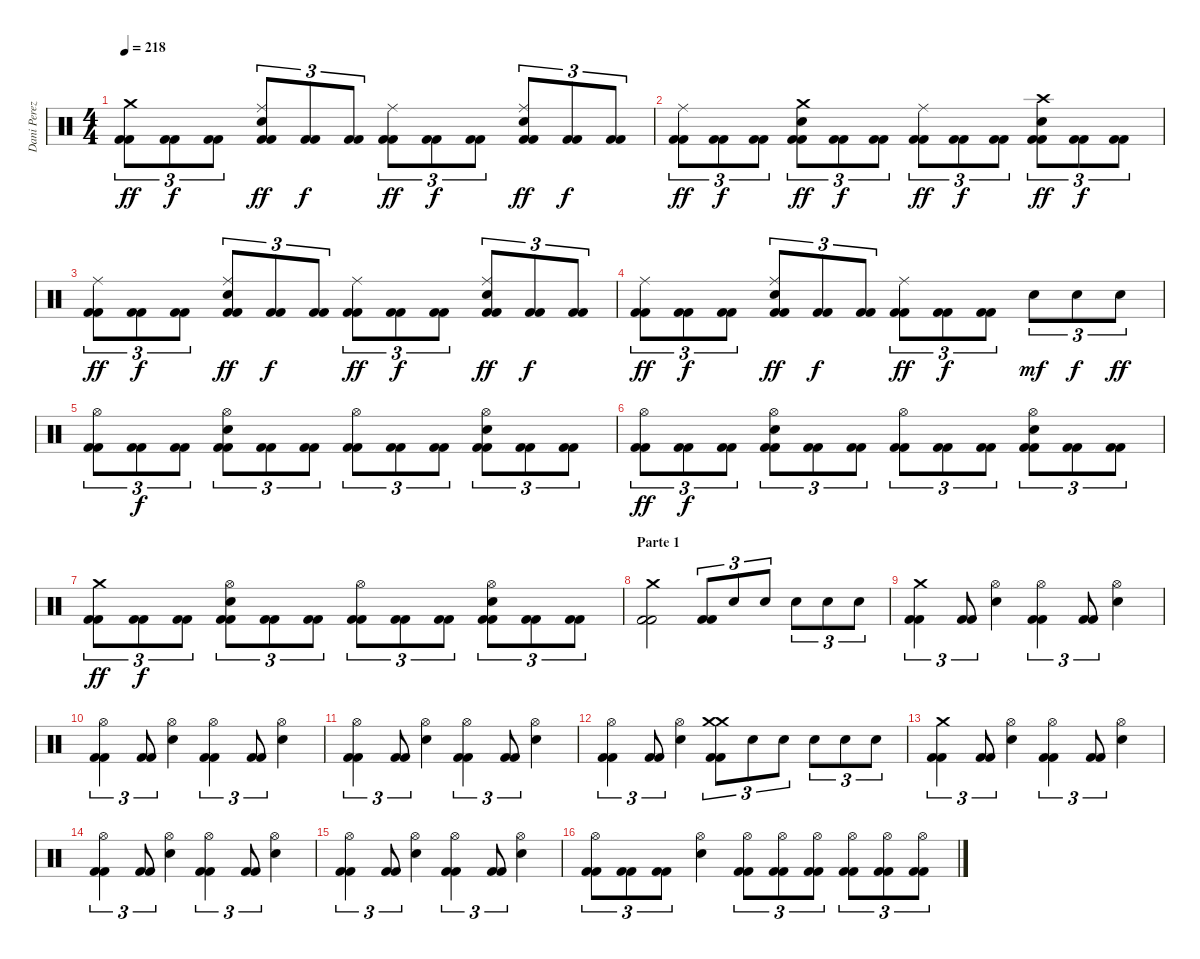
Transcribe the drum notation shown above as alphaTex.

\track ("Dani Perez" "Dani Perez") {instrument percussion}
\staff {score}
\articulation defaults
\ts (4 4)
\tempo 218
\clef neutral
\ks c
("Crash medium (hit)" "Kick (hit) 2" "Kick (hit) 2").8{tu (3 2) dy ff} ("Kick (hit) 2" "Kick (hit) 2").8{tu (3 2) dy f} ("Kick (hit) 2" "Kick (hit) 2").8{tu (3 2)} ("Ride (middle)" "Snare (hit) 2" "Kick (hit) 2" "Kick (hit) 2").8{tu (3 2) dy ff} ("Kick (hit) 2" "Kick (hit) 2").8{tu (3 2) dy f} ("Kick (hit) 2" "Kick (hit) 2").8{tu (3 2)} ("Ride (middle)" "Kick (hit) 2" "Kick (hit) 2").8{tu (3 2) dy ff} ("Kick (hit) 2" "Kick (hit) 2").8{tu (3 2) dy f} ("Kick (hit) 2" "Kick (hit) 2").8{tu (3 2)} ("Ride (middle)" "Snare (hit) 2" "Kick (hit) 2" "Kick (hit) 2").8{tu (3 2) dy ff} ("Kick (hit) 2" "Kick (hit) 2").8{tu (3 2) dy f} ("Kick (hit) 2" "Kick (hit) 2").8{tu (3 2)} |
("Ride (middle)" "Kick (hit) 2" "Kick (hit) 2").8{tu (3 2) dy ff} ("Kick (hit) 2" "Kick (hit) 2").8{tu (3 2) dy f} ("Kick (hit) 2" "Kick (hit) 2").8{tu (3 2)} ("Crash medium (hit)" "Snare (hit) 2" "Kick (hit) 2" "Kick (hit) 2").8{tu (3 2) dy ff} ("Kick (hit) 2" "Kick (hit) 2").8{tu (3 2) dy f} ("Kick (hit) 2" "Kick (hit) 2").8{tu (3 2)} ("Ride (middle)" "Kick (hit) 2" "Kick (hit) 2").8{tu (3 2) dy ff} ("Kick (hit) 2" "Kick (hit) 2").8{tu (3 2) dy f} ("Kick (hit) 2" "Kick (hit) 2").8{tu (3 2)} ("Crash high (hit)" "Snare (hit) 2" "Kick (hit) 2" "Kick (hit) 2").8{tu (3 2) dy ff} ("Kick (hit) 2" "Kick (hit) 2").8{tu (3 2) dy f} ("Kick (hit) 2" "Kick (hit) 2").8{tu (3 2)} |
("Ride (middle)" "Kick (hit) 2" "Kick (hit) 2").8{tu (3 2) dy ff} ("Kick (hit) 2" "Kick (hit) 2").8{tu (3 2) dy f} ("Kick (hit) 2" "Kick (hit) 2").8{tu (3 2)} ("Ride (middle)" "Snare (hit) 2" "Kick (hit) 2" "Kick (hit) 2").8{tu (3 2) dy ff} ("Kick (hit) 2" "Kick (hit) 2").8{tu (3 2) dy f} ("Kick (hit) 2" "Kick (hit) 2").8{tu (3 2)} ("Ride (middle)" "Kick (hit) 2" "Kick (hit) 2").8{tu (3 2) dy ff} ("Kick (hit) 2" "Kick (hit) 2").8{tu (3 2) dy f} ("Kick (hit) 2" "Kick (hit) 2").8{tu (3 2)} ("Ride (middle)" "Snare (hit) 2" "Kick (hit) 2" "Kick (hit) 2").8{tu (3 2) dy ff} ("Kick (hit) 2" "Kick (hit) 2").8{tu (3 2) dy f} ("Kick (hit) 2" "Kick (hit) 2").8{tu (3 2)} |
("Ride (middle)" "Kick (hit) 2" "Kick (hit) 2").8{tu (3 2) dy ff} ("Kick (hit) 2" "Kick (hit) 2").8{tu (3 2) dy f} ("Kick (hit) 2" "Kick (hit) 2").8{tu (3 2)} ("Ride (middle)" "Snare (hit) 2" "Kick (hit) 2" "Kick (hit) 2").8{tu (3 2) dy ff} ("Kick (hit) 2" "Kick (hit) 2").8{tu (3 2) dy f} ("Kick (hit) 2" "Kick (hit) 2").8{tu (3 2)} ("Ride (middle)" "Kick (hit) 2" "Kick (hit) 2").8{tu (3 2) dy ff} ("Kick (hit) 2" "Kick (hit) 2").8{tu (3 2) dy f} ("Kick (hit) 2" "Kick (hit) 2").8{tu (3 2)} "Snare (hit) 2".8{tu (3 2) dy mf} "Snare (hit) 2".8{tu (3 2) dy f} "Snare (hit) 2".8{tu (3 2) dy ff} |
("Hi-Hat (open)" "Kick (hit) 2" "Kick (hit) 2").8{tu (3 2)} ("Kick (hit) 2" "Kick (hit) 2").8{tu (3 2) dy f} ("Kick (hit) 2" "Kick (hit) 2").8{tu (3 2)} ("Hi-Hat (open)" "Snare (hit) 2" "Kick (hit) 2" "Kick (hit) 2").8{tu (3 2)} ("Kick (hit) 2" "Kick (hit) 2").8{tu (3 2)} ("Kick (hit) 2" "Kick (hit) 2").8{tu (3 2)} ("Hi-Hat (open)" "Kick (hit) 2" "Kick (hit) 2").8{tu (3 2)} ("Kick (hit) 2" "Kick (hit) 2").8{tu (3 2)} ("Kick (hit) 2" "Kick (hit) 2").8{tu (3 2)} ("Hi-Hat (open)" "Snare (hit) 2" "Kick (hit) 2" "Kick (hit) 2").8{tu (3 2)} ("Kick (hit) 2" "Kick (hit) 2").8{tu (3 2)} ("Kick (hit) 2" "Kick (hit) 2").8{tu (3 2)} |
("Hi-Hat (open)" "Kick (hit) 2" "Kick (hit) 2").8{tu (3 2) dy ff} ("Kick (hit) 2" "Kick (hit) 2").8{tu (3 2) dy f} ("Kick (hit) 2" "Kick (hit) 2").8{tu (3 2)} ("Hi-Hat (open)" "Snare (hit) 2" "Kick (hit) 2" "Kick (hit) 2").8{tu (3 2)} ("Kick (hit) 2" "Kick (hit) 2").8{tu (3 2)} ("Kick (hit) 2" "Kick (hit) 2").8{tu (3 2)} ("Hi-Hat (open)" "Kick (hit) 2" "Kick (hit) 2").8{tu (3 2)} ("Kick (hit) 2" "Kick (hit) 2").8{tu (3 2)} ("Kick (hit) 2" "Kick (hit) 2").8{tu (3 2)} ("Hi-Hat (open)" "Snare (hit) 2" "Kick (hit) 2" "Kick (hit) 2").8{tu (3 2)} ("Kick (hit) 2" "Kick (hit) 2").8{tu (3 2)} ("Kick (hit) 2" "Kick (hit) 2").8{tu (3 2)} |
("Crash medium (hit)" "Kick (hit) 2" "Kick (hit) 2").8{tu (3 2) dy ff} ("Kick (hit) 2" "Kick (hit) 2").8{tu (3 2) dy f} ("Kick (hit) 2" "Kick (hit) 2").8{tu (3 2)} ("Hi-Hat (open)" "Snare (hit) 2" "Kick (hit) 2" "Kick (hit) 2").8{tu (3 2)} ("Kick (hit) 2" "Kick (hit) 2").8{tu (3 2)} ("Kick (hit) 2" "Kick (hit) 2").8{tu (3 2)} ("Hi-Hat (open)" "Kick (hit) 2" "Kick (hit) 2").8{tu (3 2)} ("Kick (hit) 2" "Kick (hit) 2").8{tu (3 2)} ("Kick (hit) 2" "Kick (hit) 2").8{tu (3 2)} ("Hi-Hat (open)" "Snare (hit) 2" "Kick (hit) 2" "Kick (hit) 2").8{tu (3 2)} ("Kick (hit) 2" "Kick (hit) 2").8{tu (3 2)} ("Kick (hit) 2" "Kick (hit) 2").8{tu (3 2)} |
\section ("" "Parte 1")
("Crash medium (hit)" "Kick (hit) 2" "Kick (hit) 2").2 ("Kick (hit) 2" "Kick (hit) 2").8{tu (3 2)} "Snare (hit) 2".8{tu (3 2)} "Snare (hit) 2".8{tu (3 2)} "Snare (hit) 2".8{tu (3 2)} "Snare (hit) 2".8{tu (3 2)} "Snare (hit) 2".8{tu (3 2)} |
("Crash medium (hit)" "Kick (hit) 2" "Kick (hit) 2").4{tu (3 2)} ("Kick (hit) 2" "Kick (hit) 2").8{tu (3 2)} ("Hi-Hat (open)" "Snare (hit) 2").4 ("Hi-Hat (open)" "Kick (hit) 2" "Kick (hit) 2").4{tu (3 2)} ("Kick (hit) 2" "Kick (hit) 2").8{tu (3 2)} ("Hi-Hat (open)" "Snare (hit) 2").4 |
("Hi-Hat (open)" "Kick (hit) 2" "Kick (hit) 2").4{tu (3 2)} ("Kick (hit) 2" "Kick (hit) 2").8{tu (3 2)} ("Hi-Hat (open)" "Snare (hit) 2").4 ("Hi-Hat (open)" "Kick (hit) 2" "Kick (hit) 2").4{tu (3 2)} ("Kick (hit) 2" "Kick (hit) 2").8{tu (3 2)} ("Hi-Hat (open)" "Snare (hit) 2").4 |
("Hi-Hat (open)" "Kick (hit) 2" "Kick (hit) 2").4{tu (3 2)} ("Kick (hit) 2" "Kick (hit) 2").8{tu (3 2)} ("Hi-Hat (open)" "Snare (hit) 2").4 ("Hi-Hat (open)" "Kick (hit) 2" "Kick (hit) 2").4{tu (3 2)} ("Kick (hit) 2" "Kick (hit) 2").8{tu (3 2)} ("Hi-Hat (open)" "Snare (hit) 2").4 |
("Hi-Hat (open)" "Kick (hit) 2" "Kick (hit) 2").4{tu (3 2)} ("Kick (hit) 2" "Kick (hit) 2").8{tu (3 2)} ("Snare (hit) 2" "Hi-Hat (open)").4 ("Crash medium (hit)" "Crash medium (hit)" "Kick (hit) 2" "Kick (hit) 2").8{tu (3 2)} "Snare (hit) 2".8{tu (3 2)} "Snare (hit) 2".8{tu (3 2)} "Snare (hit) 2".8{tu (3 2)} "Snare (hit) 2".8{tu (3 2)} "Snare (hit) 2".8{tu (3 2)} |
("Crash medium (hit)" "Kick (hit) 2" "Kick (hit) 2").4{tu (3 2)} ("Kick (hit) 2" "Kick (hit) 2").8{tu (3 2)} ("Hi-Hat (open)" "Snare (hit) 2").4 ("Hi-Hat (open)" "Kick (hit) 2" "Kick (hit) 2").4{tu (3 2)} ("Kick (hit) 2" "Kick (hit) 2").8{tu (3 2)} ("Hi-Hat (open)" "Snare (hit) 2").4 |
("Hi-Hat (open)" "Kick (hit) 2" "Kick (hit) 2").4{tu (3 2)} ("Kick (hit) 2" "Kick (hit) 2").8{tu (3 2)} ("Hi-Hat (open)" "Snare (hit) 2").4 ("Hi-Hat (open)" "Kick (hit) 2" "Kick (hit) 2").4{tu (3 2)} ("Kick (hit) 2" "Kick (hit) 2").8{tu (3 2)} ("Hi-Hat (open)" "Snare (hit) 2").4 |
("Hi-Hat (open)" "Kick (hit) 2" "Kick (hit) 2").4{tu (3 2)} ("Kick (hit) 2" "Kick (hit) 2").8{tu (3 2)} ("Hi-Hat (open)" "Snare (hit) 2").4 ("Hi-Hat (open)" "Kick (hit) 2" "Kick (hit) 2").4{tu (3 2)} ("Kick (hit) 2" "Kick (hit) 2").8{tu (3 2)} ("Hi-Hat (open)" "Snare (hit) 2").4 |
("Hi-Hat (open)" "Kick (hit) 2" "Kick (hit) 2").8{tu (3 2)} ("Kick (hit) 2" "Kick (hit) 2").8{tu (3 2)} ("Kick (hit) 2" "Kick (hit) 2").8{tu (3 2)} ("Snare (hit) 2" "Hi-Hat (open)").4 ("Hi-Hat (open)" "Kick (hit) 2" "Kick (hit) 2").8{tu (3 2)} ("Hi-Hat (open)" "Kick (hit) 2" "Kick (hit) 2").8{tu (3 2)} ("Hi-Hat (open)" "Kick (hit) 2" "Kick (hit) 2").8{tu (3 2)} ("Hi-Hat (open)" "Kick (hit) 2" "Kick (hit) 2").8{tu (3 2)} ("Hi-Hat (open)" "Kick (hit) 2" "Kick (hit) 2").8{tu (3 2)} ("Hi-Hat (open)" "Kick (hit) 2" "Kick (hit) 2").8{tu (3 2)}
